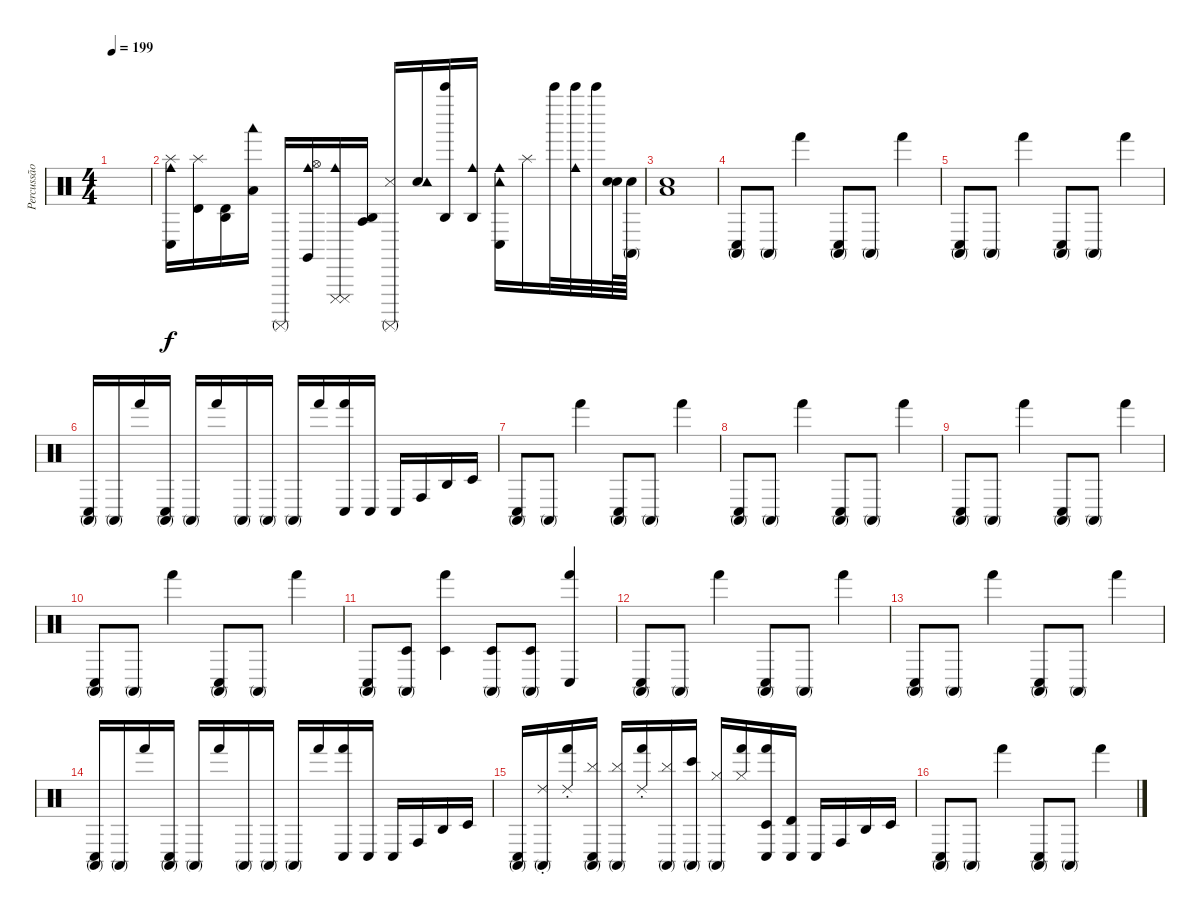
\track ("Percussão" "Percussão") {instrument percussion}
\staff {score}
\articulation defaults
\ts (4 4)
\tempo 199
\clef neutral
\ks c
|
("Cowbell medium (hit)" "Conga low (hit)" "Splash (hit)").16 ("Splash (hit)" "Timbale high (hit)").16 ("Timbale high (hit)" "Agogo high (hit)").16 ("Low Tom (hit)" "Woodblock low (hit)").16 "Surdo (mute)".16 ("Cowbell medium (hit)" "Claves (hit)" "Hi-Hat (open)").16 ("Cuica (mute)" "Cuica (mute)" "Cowbell medium (hit)").16 ("Agogo tow (hit)" "Agogo high (hit)").16 ("Surdo (mute)" "Metronome (hit)").16 ("Snare (hit)" "Tambourine (hit)").16 ("Bell Tree (hit)" "Agogo high (hit)").16 ("Agogo high (hit)" "Cowbell medium (hit)").16 ("Tambourine (hit)" "Conga low (hit)" "Cowbell medium (hit)").16 "Splash (hit)".16 "Bell Tree (hit)".32 ("Bell Tree (hit)" "Cowbell medium (hit)").32 "Bell Tree (hit)".32 ("Snare (hit)" "Snare (hit)").64 ("Conga high (mute)" "Snare (hit)").64 |
("Snare (hit)" "Low Tom (hit)").1 |
("Conga high (mute)" "Conga low (hit)").8 "Conga high (mute)".8 "Hand (hit)".4 ("Conga high (mute)" "Conga low (hit)").8 "Conga high (mute)".8 "Hand (hit)".4 |
("Conga high (mute)" "Conga low (hit)").8 "Conga high (mute)".8 "Hand (hit)".4 ("Conga high (mute)" "Conga low (hit)").8 "Conga high (mute)".8 "Hand (hit)".4 |
("Conga high (mute)" "Conga low (hit)").16 "Conga high (mute)".16 "Hand (hit)".16 ("Conga high (mute)" "Conga low (hit)").16 "Conga high (mute)".16 "Hand (hit)".16 "Conga high (mute)".16 "Conga high (mute)".16 "Conga high (mute)".16 "Hand (hit)".16 ("Conga low (hit)" "Hand (hit)").16 "Conga low (hit)".16 "Conga low (hit)".16 "Conga high (hit)".16 "Agogo high (hit)".16 "Timbale low (hit)".16 |
("Conga high (mute)" "Conga low (hit)").8 "Conga high (mute)".8 "Hand (hit)".4 ("Conga high (mute)" "Conga low (hit)").8 "Conga high (mute)".8 "Hand (hit)".4 |
("Conga high (mute)" "Conga low (hit)").8 "Conga high (mute)".8 "Hand (hit)".4 ("Conga high (mute)" "Conga low (hit)").8 "Conga high (mute)".8 "Hand (hit)".4 |
("Conga high (mute)" "Conga low (hit)").8 "Conga high (mute)".8 "Hand (hit)".4 ("Conga high (mute)" "Conga low (hit)").8 "Conga high (mute)".8 "Hand (hit)".4 |
("Conga high (mute)" "Conga low (hit)").8 "Conga high (mute)".8 "Hand (hit)".4 ("Conga high (mute)" "Conga low (hit)").8 "Conga high (mute)".8 "Hand (hit)".4 |
("Conga high (mute)" "Conga low (hit)").8 ("Conga high (mute)" "Timbale low (hit)").8 ("Hand (hit)" "Timbale low (hit)").4 ("Conga high (mute)" "Timbale low (hit)").8 ("Conga high (mute)" "Timbale low (hit)").8 ("Hand (hit)" "Conga low (hit)").4 |
("Conga high (mute)" "Conga low (hit)").8 "Conga high (mute)".8 "Hand (hit)".4 ("Conga high (mute)" "Conga low (hit)").8 "Conga high (mute)".8 "Hand (hit)".4 |
("Conga high (mute)" "Conga low (hit)").8 "Conga high (mute)".8 "Hand (hit)".4 ("Conga high (mute)" "Conga low (hit)").8 "Conga high (mute)".8 "Hand (hit)".4 |
("Conga high (mute)" "Conga low (hit)").16 "Conga high (mute)".16 "Hand (hit)".16 ("Conga high (mute)" "Conga low (hit)").16 "Conga high (mute)".16 "Hand (hit)".16 "Conga high (mute)".16 "Conga high (mute)".16 "Conga high (mute)".16 "Hand (hit)".16 ("Conga low (hit)" "Hand (hit)").16 "Conga low (hit)".16 "Conga low (hit)".16 "Conga high (hit)".16 "Agogo high (hit)".16 "Timbale low (hit)".16 |
("Conga high (mute)" "Conga low (hit)").16 ("Conga high (mute)" "Ride (choke) 2").16 ("Hand (hit)" "Ride (choke) 2").16 ("Conga high (mute)" "Conga low (hit)" "Cymbal (hit)").16 ("Conga high (mute)" "Cymbal (hit)").16 ("Hand (hit)" "Ride (choke) 2").16 ("Conga high (mute)" "Cymbal (hit)").16 ("Conga high (mute)" "Bongo High (hit)").16 ("Conga high (mute)" "Hi-Hat (closed)").16 ("Hand (hit)" "Hi-Hat (closed)").16 ("Conga low (hit)" "Hand (hit)" "Timbale low (hit)").16 ("Conga low (hit)" "Timbale high (hit)").16 "Conga low (hit)".16 "Conga high (hit)".16 "Agogo high (hit)".16 "Timbale low (hit)".16 |
("Conga high (mute)" "Conga low (hit)").8 "Conga high (mute)".8 "Hand (hit)".4 ("Conga high (mute)" "Conga low (hit)").8 "Conga high (mute)".8 "Hand (hit)".4
